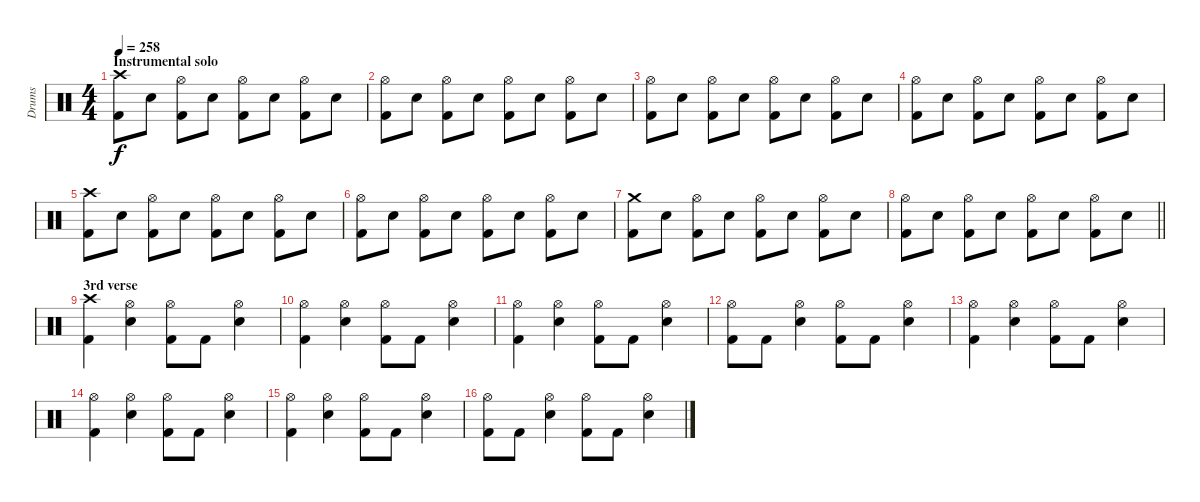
\track ("Drums" "Drums") {instrument percussion}
\staff {score}
\articulation defaults
\ts (4 4)
\section ("" "Instrumental solo")
\tempo 258
\clef neutral
\ks c
("Crash high (hit)" "Kick (hit) 2").8{dy f} "Electric Snare (hit)".8 ("Hi-Hat (open)" "Kick (hit) 2").8 "Electric Snare (hit)".8 ("Hi-Hat (open)" "Kick (hit) 2").8 "Electric Snare (hit)".8 ("Hi-Hat (open)" "Kick (hit) 2").8 "Electric Snare (hit)".8 |
("Hi-Hat (open)" "Kick (hit) 2").8 "Electric Snare (hit)".8 ("Hi-Hat (open)" "Kick (hit) 2").8 "Electric Snare (hit)".8 ("Hi-Hat (open)" "Kick (hit) 2").8 "Electric Snare (hit)".8 ("Hi-Hat (open)" "Kick (hit) 2").8 "Electric Snare (hit)".8 |
("Hi-Hat (open)" "Kick (hit) 2").8 "Electric Snare (hit)".8 ("Hi-Hat (open)" "Kick (hit) 2").8 "Electric Snare (hit)".8 ("Hi-Hat (open)" "Kick (hit) 2").8 "Electric Snare (hit)".8 ("Hi-Hat (open)" "Kick (hit) 2").8 "Electric Snare (hit)".8 |
("Hi-Hat (open)" "Kick (hit) 2").8 "Electric Snare (hit)".8 ("Hi-Hat (open)" "Kick (hit) 2").8 "Electric Snare (hit)".8 ("Hi-Hat (open)" "Kick (hit) 2").8 "Electric Snare (hit)".8 ("Hi-Hat (open)" "Kick (hit) 2").8 "Electric Snare (hit)".8 |
("Crash high (hit)" "Kick (hit) 2").8 "Electric Snare (hit)".8 ("Hi-Hat (open)" "Kick (hit) 2").8 "Electric Snare (hit)".8 ("Hi-Hat (open)" "Kick (hit) 2").8 "Electric Snare (hit)".8 ("Hi-Hat (open)" "Kick (hit) 2").8 "Electric Snare (hit)".8 |
("Hi-Hat (open)" "Kick (hit) 2").8 "Electric Snare (hit)".8 ("Hi-Hat (open)" "Kick (hit) 2").8 "Electric Snare (hit)".8 ("Hi-Hat (open)" "Kick (hit) 2").8 "Electric Snare (hit)".8 ("Hi-Hat (open)" "Kick (hit) 2").8 "Electric Snare (hit)".8 |
("Crash medium (hit)" "Kick (hit) 2").8 "Electric Snare (hit)".8 ("Hi-Hat (open)" "Kick (hit) 2").8 "Electric Snare (hit)".8 ("Hi-Hat (open)" "Kick (hit) 2").8 "Electric Snare (hit)".8 ("Hi-Hat (open)" "Kick (hit) 2").8 "Electric Snare (hit)".8 |
\barLineRight lightlight
("Hi-Hat (open)" "Kick (hit) 2").8 "Electric Snare (hit)".8 ("Hi-Hat (open)" "Kick (hit) 2").8 "Electric Snare (hit)".8 ("Hi-Hat (open)" "Kick (hit) 2").8 "Electric Snare (hit)".8 ("Hi-Hat (open)" "Kick (hit) 2").8 "Electric Snare (hit)".8 |
\section ("" "3rd verse")
("Crash high (hit)" "Kick (hit) 2").4 ("Hi-Hat (open)" "Electric Snare (hit)").4 ("Hi-Hat (open)" "Kick (hit) 2").8 "Kick (hit) 2".8 ("Hi-Hat (open)" "Electric Snare (hit)").4 |
("Hi-Hat (open)" "Kick (hit) 2").4 ("Hi-Hat (open)" "Electric Snare (hit)").4 ("Hi-Hat (open)" "Kick (hit) 2").8 "Kick (hit) 2".8 ("Hi-Hat (open)" "Electric Snare (hit)").4 |
("Hi-Hat (open)" "Kick (hit) 2").4 ("Hi-Hat (open)" "Electric Snare (hit)").4 ("Hi-Hat (open)" "Kick (hit) 2").8 "Kick (hit) 2".8 ("Hi-Hat (open)" "Electric Snare (hit)").4 |
("Hi-Hat (open)" "Kick (hit) 2").8 "Kick (hit) 2".8 ("Hi-Hat (open)" "Electric Snare (hit)").4 ("Hi-Hat (open)" "Kick (hit) 2").8 "Kick (hit) 2".8 ("Hi-Hat (open)" "Electric Snare (hit)").4 |
("Hi-Hat (open)" "Kick (hit) 2").4 ("Hi-Hat (open)" "Electric Snare (hit)").4 ("Hi-Hat (open)" "Kick (hit) 2").8 "Kick (hit) 2".8 ("Hi-Hat (open)" "Electric Snare (hit)").4 |
("Hi-Hat (open)" "Kick (hit) 2").4 ("Hi-Hat (open)" "Electric Snare (hit)").4 ("Hi-Hat (open)" "Kick (hit) 2").8 "Kick (hit) 2".8 ("Hi-Hat (open)" "Electric Snare (hit)").4 |
("Hi-Hat (open)" "Kick (hit) 2").4 ("Hi-Hat (open)" "Electric Snare (hit)").4 ("Hi-Hat (open)" "Kick (hit) 2").8 "Kick (hit) 2".8 ("Hi-Hat (open)" "Electric Snare (hit)").4 |
("Hi-Hat (open)" "Kick (hit) 2").8 "Kick (hit) 2".8 ("Hi-Hat (open)" "Electric Snare (hit)").4 ("Hi-Hat (open)" "Kick (hit) 2").8 "Kick (hit) 2".8 ("Hi-Hat (open)" "Electric Snare (hit)").4
